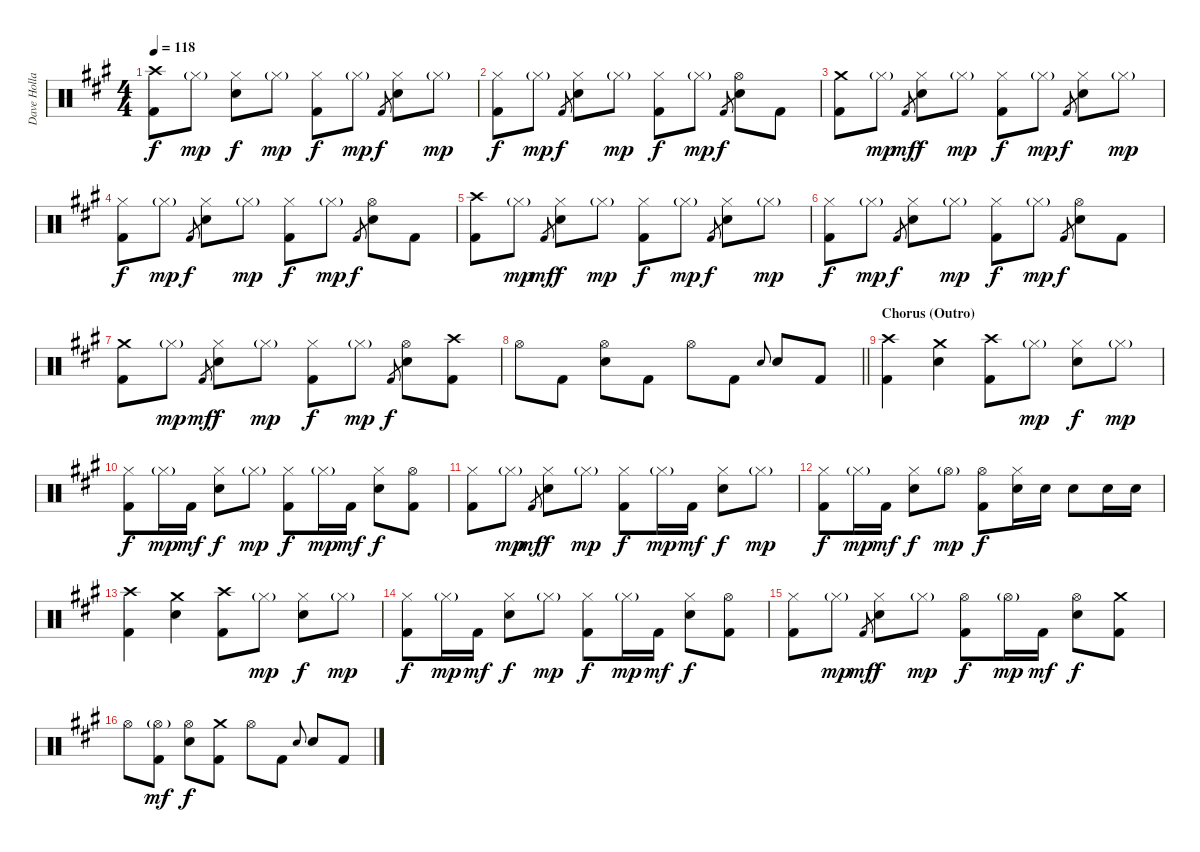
\track ("Dave Holland" "Dave Holla") {instrument percussion}
\staff {score}
\articulation defaults
\ts (4 4)
\tempo 118
\clef neutral
\ks f#minor
("Crash high (hit)" "Kick (hit) 2").8{dy f} "Hi-Hat (closed)"{g}.8{dy mp} ("Hi-Hat (closed)" "Snare (hit) 2").8{dy f} "Hi-Hat (closed)"{g}.8{dy mp} ("Hi-Hat (closed)" "Kick (hit) 2").8{dy f} "Hi-Hat (closed)"{g}.8{dy mp} "Kick (hit) 2".8{gr dy f} ("Hi-Hat (closed)" "Snare (hit) 2").8 "Hi-Hat (closed)"{g}.8{dy mp} |
("Hi-Hat (closed)" "Kick (hit) 2").8{dy f} "Hi-Hat (closed)"{g}.8{dy mp} "Kick (hit) 2".8{gr dy f} ("Hi-Hat (closed)" "Snare (hit) 2").8 "Hi-Hat (closed)"{g}.8{dy mp} ("Hi-Hat (closed)" "Kick (hit) 2").8{dy f} "Hi-Hat (closed)"{g}.8{dy mp} "Kick (hit) 2".8{gr dy f} ("Hi-Hat (open)" "Snare (hit) 2").8 "Kick (hit) 2".8 |
("Crash medium (hit)" "Kick (hit) 2").8 "Hi-Hat (closed)"{g}.8{dy mp} "Kick (hit) 2".8{gr dy mf} ("Hi-Hat (closed)" "Snare (hit) 2").8{dy f} "Hi-Hat (closed)"{g}.8{dy mp} ("Hi-Hat (closed)" "Kick (hit) 2").8{dy f} "Hi-Hat (closed)"{g}.8{dy mp} "Kick (hit) 2".8{gr dy f} ("Hi-Hat (closed)" "Snare (hit) 2").8 "Hi-Hat (closed)"{g}.8{dy mp} |
("Hi-Hat (closed)" "Kick (hit) 2").8{dy f} "Hi-Hat (closed)"{g}.8{dy mp} "Kick (hit) 2".8{gr dy f} ("Hi-Hat (closed)" "Snare (hit) 2").8 "Hi-Hat (closed)"{g}.8{dy mp} ("Hi-Hat (closed)" "Kick (hit) 2").8{dy f} "Hi-Hat (closed)"{g}.8{dy mp} "Kick (hit) 2".8{gr dy f} ("Hi-Hat (open)" "Snare (hit) 2").8 "Kick (hit) 2".8 |
("Crash high (hit)" "Kick (hit) 2").8 "Hi-Hat (closed)"{g}.8{dy mp} "Kick (hit) 2".8{gr dy mf} ("Hi-Hat (closed)" "Snare (hit) 2").8{dy f} "Hi-Hat (closed)"{g}.8{dy mp} ("Hi-Hat (closed)" "Kick (hit) 2").8{dy f} "Hi-Hat (closed)"{g}.8{dy mp} "Kick (hit) 2".8{gr dy f} ("Hi-Hat (closed)" "Snare (hit) 2").8 "Hi-Hat (closed)"{g}.8{dy mp} |
("Hi-Hat (closed)" "Kick (hit) 2").8{dy f} "Hi-Hat (closed)"{g}.8{dy mp} "Kick (hit) 2".8{gr dy f} ("Hi-Hat (closed)" "Snare (hit) 2").8 "Hi-Hat (closed)"{g}.8{dy mp} ("Hi-Hat (closed)" "Kick (hit) 2").8{dy f} "Hi-Hat (closed)"{g}.8{dy mp} "Kick (hit) 2".8{gr dy f} ("Hi-Hat (open)" "Snare (hit) 2").8 "Kick (hit) 2".8 |
("Crash medium (hit)" "Kick (hit) 2").8 "Hi-Hat (closed)"{g}.8{dy mp} "Kick (hit) 2".8{gr dy mf} ("Hi-Hat (closed)" "Snare (hit) 2").8{dy f} "Hi-Hat (closed)"{g}.8{dy mp} ("Hi-Hat (closed)" "Kick (hit) 2").8{dy f} "Hi-Hat (closed)"{g}.8{dy mp} "Kick (hit) 2".8{gr dy f} ("Hi-Hat (open)" "Snare (hit) 2").8 ("Crash high (hit)" "Kick (hit) 2").8 |
\barLineRight lightlight "Hi-Hat (open)".8 "Kick (hit) 2".8
("Hi-Hat (open)" "Snare (hit) 2").8 "Kick (hit) 2".8 "Hi-Hat (open)".8 "Kick (hit) 2".8 "Snare (hit) 2".8{gr onbeat} "Snare (hit) 2".8 "Kick (hit) 2".8 |
\section ("" "Chorus (Outro)")
("Crash high (hit)" "Kick (hit) 2").4 ("Crash medium (hit)" "Snare (hit) 2").4 ("Crash high (hit)" "Kick (hit) 2").8 "Hi-Hat (closed)"{g}.8{dy mp} ("Hi-Hat (closed)" "Snare (hit) 2").8{dy f} "Hi-Hat (closed)"{g}.8{dy mp} |
("Hi-Hat (closed)" "Kick (hit) 2").8{dy f} "Hi-Hat (closed)"{g}.16{dy mp} "Kick (hit) 2".16{dy mf} ("Hi-Hat (closed)" "Snare (hit) 2").8{dy f} "Hi-Hat (closed)"{g}.8{dy mp} ("Hi-Hat (closed)" "Kick (hit) 2").8{dy f} "Hi-Hat (closed)"{g}.16{dy mp} "Kick (hit) 2".16{dy mf} ("Hi-Hat (closed)" "Snare (hit) 2").8{dy f} ("Hi-Hat (open)" "Kick (hit) 2").8 |
("Hi-Hat (closed)" "Kick (hit) 2").8 "Hi-Hat (closed)"{g}.8{dy mp} "Kick (hit) 2".8{gr dy mf} ("Hi-Hat (closed)" "Snare (hit) 2").8{dy f} "Hi-Hat (closed)"{g}.8{dy mp} ("Hi-Hat (closed)" "Kick (hit) 2").8{dy f} "Hi-Hat (closed)"{g}.16{dy mp} "Kick (hit) 2".16{dy mf} ("Hi-Hat (closed)" "Snare (hit) 2").8{dy f} "Hi-Hat (closed)"{g}.8{dy mp} |
("Hi-Hat (closed)" "Kick (hit) 2").8{dy f} "Hi-Hat (closed)"{g}.16{dy mp} "Kick (hit) 2".16{dy mf} ("Hi-Hat (closed)" "Snare (hit) 2").8{dy f} "Hi-Hat (open)"{g}.8{dy mp} ("Hi-Hat (open)" "Kick (hit) 2").8{dy f} ("Hi-Hat (closed)" "Snare (hit) 2").16 "Snare (hit) 2".16 "Snare (hit) 2".8 "Snare (hit) 2".16 "Snare (hit) 2".16 |
("Crash high (hit)" "Kick (hit) 2").4 ("Crash medium (hit)" "Snare (hit) 2").4 ("Crash high (hit)" "Kick (hit) 2").8 "Hi-Hat (closed)"{g}.8{dy mp} ("Hi-Hat (closed)" "Snare (hit) 2").8{dy f} "Hi-Hat (closed)"{g}.8{dy mp} |
("Hi-Hat (closed)" "Kick (hit) 2").8{dy f} "Hi-Hat (closed)"{g}.16{dy mp} "Kick (hit) 2".16{dy mf} ("Hi-Hat (closed)" "Snare (hit) 2").8{dy f} "Hi-Hat (closed)"{g}.8{dy mp} ("Hi-Hat (closed)" "Kick (hit) 2").8{dy f} "Hi-Hat (closed)"{g}.16{dy mp} "Kick (hit) 2".16{dy mf} ("Hi-Hat (closed)" "Snare (hit) 2").8{dy f} ("Hi-Hat (open)" "Kick (hit) 2").8 |
("Hi-Hat (closed)" "Kick (hit) 2").8 "Hi-Hat (closed)"{g}.8{dy mp} "Kick (hit) 2".8{gr dy mf} ("Hi-Hat (closed)" "Snare (hit) 2").8{dy f} "Hi-Hat (closed)"{g}.8{dy mp} ("Hi-Hat (open)" "Kick (hit) 2").8{dy f} "Hi-Hat (open)"{g}.16{dy mp} "Kick (hit) 2".16{dy mf} ("Hi-Hat (open)" "Snare (hit) 2").8{dy f} ("Crash medium (hit)" "Kick (hit) 2").8 |
"Hi-Hat (open)".8 ("Hi-Hat (open)"{g} "Kick (hit) 2").8{dy mf} ("Hi-Hat (open)" "Snare (hit) 2").8{dy f} ("Crash medium (hit)" "Kick (hit) 2").8 "Hi-Hat (open)".8 "Kick (hit) 2".8 "Snare (hit) 2".8{gr onbeat} "Snare (hit) 2".8 "Kick (hit) 2".8
